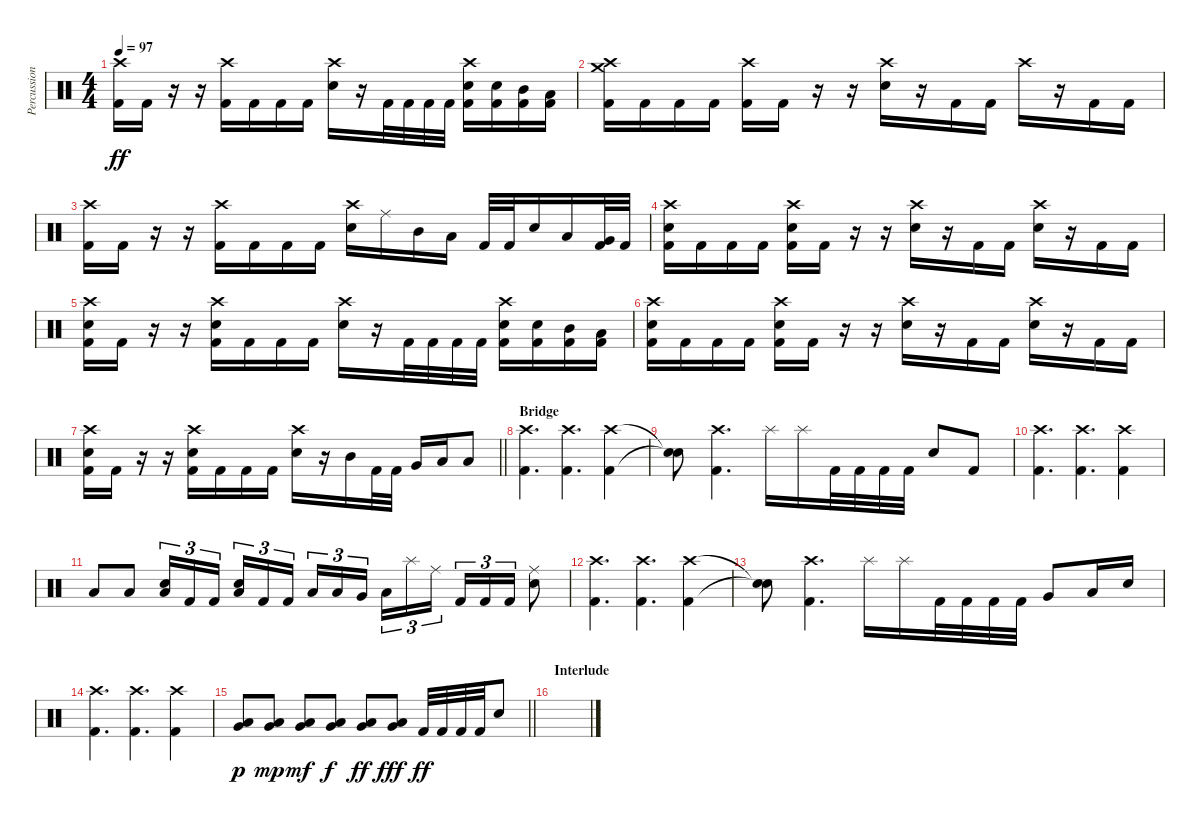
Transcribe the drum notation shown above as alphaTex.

\track ("Percussion" "Percussion") {instrument percussion}
\staff {score}
\articulation defaults
\ts (4 4)
\tempo 97
\clef neutral
\ks c
("Crash high (hit)" "Kick (hit) 2").16{dy ff} "Kick (hit) 2".16 r.16 r.16 ("Crash high (hit)" "Kick (hit) 2").16 "Kick (hit) 2".16 "Kick (hit) 2".16 "Kick (hit) 2".16 ("Crash high (hit)" "Electric Snare (hit)").16 r.16 "Kick (hit) 2".32 "Kick (hit) 2".32 "Kick (hit) 2".32 "Kick (hit) 2".32 ("Crash high (hit)" "Electric Snare (hit)" "Kick (hit) 2").16 ("Electric Snare (hit)" "Kick (hit) 2").16 ("Mid Tom (hit)" "Kick (hit) 2").16 ("Low Tom (hit)" "Kick (hit) 2").16 |
("Crash high (hit)" "Crash medium (hit)" "Kick (hit) 2").16 "Kick (hit) 2".16 "Kick (hit) 2".16 "Kick (hit) 2".16 ("Crash high (hit)" "Kick (hit) 2").16 "Kick (hit) 2".16 r.16 r.16 ("Crash high (hit)" "Electric Snare (hit)").16 r.16 "Kick (hit) 2".16 "Kick (hit) 2".16 "Crash high (hit)".16 r.16 "Kick (hit) 2".16 "Kick (hit) 2".16 |
("Crash high (hit)" "Kick (hit) 2").16 "Kick (hit) 2".16 r.16 r.16 ("Crash high (hit)" "Kick (hit) 2").16 "Kick (hit) 2".16 "Kick (hit) 2".16 "Kick (hit) 2".16 ("Crash high (hit)" "Electric Snare (hit)").16 "Ride (middle)".16 "Mid Tom (hit)".16 "Low Tom (hit)".16 "Kick (hit) 2".32 "Kick (hit) 2".32 "Electric Snare (hit)".16 "Low Tom (hit)".16 ("Very Low Tom (hit)" "Kick (hit) 2").32 "Kick (hit) 2".32 |
("Crash high (hit)" "Electric Snare (hit)" "Kick (hit) 2").16 "Kick (hit) 2".16 "Kick (hit) 2".16 "Kick (hit) 2".16 ("Crash high (hit)" "Electric Snare (hit)" "Kick (hit) 2").16 "Kick (hit) 2".16 r.16 r.16 ("Crash high (hit)" "Electric Snare (hit)").16 r.16 "Kick (hit) 2".16 "Kick (hit) 2".16 ("Crash high (hit)" "Electric Snare (hit)").16 r.16 "Kick (hit) 2".16 "Kick (hit) 2".16 |
("Crash high (hit)" "Electric Snare (hit)" "Kick (hit) 2").16 "Kick (hit) 2".16 r.16 r.16 ("Crash high (hit)" "Electric Snare (hit)" "Kick (hit) 2").16 "Kick (hit) 2".16 "Kick (hit) 2".16 "Kick (hit) 2".16 ("Crash high (hit)" "Electric Snare (hit)").16 r.16 "Kick (hit) 2".32 "Kick (hit) 2".32 "Kick (hit) 2".32 "Kick (hit) 2".32 ("Crash high (hit)" "Electric Snare (hit)" "Kick (hit) 2").16 ("Electric Snare (hit)" "Kick (hit) 2").16 ("Mid Tom (hit)" "Kick (hit) 2").16 ("Low Tom (hit)" "Kick (hit) 2").16 |
("Crash high (hit)" "Electric Snare (hit)" "Kick (hit) 2").16 "Kick (hit) 2".16 "Kick (hit) 2".16 "Kick (hit) 2".16 ("Crash high (hit)" "Electric Snare (hit)" "Kick (hit) 2").16 "Kick (hit) 2".16 r.16 r.16 ("Crash high (hit)" "Electric Snare (hit)").16 r.16 "Kick (hit) 2".16 "Kick (hit) 2".16 ("Crash high (hit)" "Electric Snare (hit)").16 r.16 "Kick (hit) 2".16 "Kick (hit) 2".16 |
\barLineRight lightlight
("Crash high (hit)" "Electric Snare (hit)" "Kick (hit) 2").16 "Kick (hit) 2".16 r.16 r.16 ("Crash high (hit)" "Electric Snare (hit)" "Kick (hit) 2").16 "Kick (hit) 2".16 "Kick (hit) 2".16 "Kick (hit) 2".16 ("Crash high (hit)" "Electric Snare (hit)").16 r.16 "Mid Tom (hit)".16 "Kick (hit) 2".32 "Kick (hit) 2".32 "Very Low Tom (hit)".16 "Low Tom (hit)".16 "Low Floor Tom (hit)".8 |
\section ("" "Bridge")
("Crash high (hit)" "Kick (hit) 2").4{d} ("Crash high (hit)" "Kick (hit) 2").4{d} ("Crash high (hit)" "Kick (hit) 2").4 |
("Snare (hit)"{t} "Snare (hit)"{t}).8 ("Crash high (hit)" "Kick (hit) 2").4{d} "Splash (hit)".16 "Splash (hit)".16 "Kick (hit) 2".32 "Kick (hit) 2".32 "Kick (hit) 2".32 "Kick (hit) 2".32 "Electric Snare (hit)".8 "Kick (hit) 2".8 |
("Crash high (hit)" "Kick (hit) 2").4{d} ("Crash high (hit)" "Kick (hit) 2").4{d} ("Crash high (hit)" "Kick (hit) 2").4 |
"Low Floor Tom (hit)".8 "Low Floor Tom (hit)".8 ("Electric Snare (hit)" "Low Floor Tom (hit)").16{tu (3 2)} "Kick (hit) 2".16{tu (3 2)} "Kick (hit) 2".16{tu (3 2) beam splitsecondary} ("Electric Snare (hit)" "Low Floor Tom (hit)").16{tu (3 2)} "Kick (hit) 2".16{tu (3 2)} "Kick (hit) 2".16{tu (3 2)} "Low Tom (hit)".16{tu (3 2)} "Low Tom (hit)".16{tu (3 2)} "Very Low Tom (hit)".16{tu (3 2) beam splitsecondary} "Low Tom (hit)".16{tu (3 2)} "Splash (hit)".16{tu (3 2)} "Ride (middle)".16{tu (3 2)} "Kick (hit) 2".16{tu (3 2)} "Kick (hit) 2".16{tu (3 2)} "Kick (hit) 2".16{tu (3 2)} ("Ride (middle)" "Electric Snare (hit)").8 |
("Crash high (hit)" "Kick (hit) 2").4{d} ("Crash high (hit)" "Kick (hit) 2").4{d} ("Crash high (hit)" "Kick (hit) 2").4 |
("Snare (hit)"{t} "Snare (hit)"{t}).8 ("Crash high (hit)" "Kick (hit) 2").4{d} "Splash (hit)".16 "Splash (hit)".16 "Kick (hit) 2".32 "Kick (hit) 2".32 "Kick (hit) 2".32 "Kick (hit) 2".32 "Very Low Tom (hit)".8 "Low Floor Tom (hit)".16 "Electric Snare (hit)".16 |
("Crash high (hit)" "Kick (hit) 2").4{d} ("Crash high (hit)" "Kick (hit) 2").4{d} ("Crash high (hit)" "Kick (hit) 2").4 |
\barLineRight lightlight
("Very Low Tom (hit)" "Low Floor Tom (hit)").8{dy p} ("Very Low Tom (hit)" "Low Floor Tom (hit)").8{dy mp} ("Very Low Tom (hit)" "Low Floor Tom (hit)").8{dy mf} ("Very Low Tom (hit)" "Low Floor Tom (hit)").8{dy f} ("Very Low Tom (hit)" "Low Floor Tom (hit)").8{dy ff} ("Very Low Tom (hit)" "Low Floor Tom (hit)").8{dy fff} "Kick (hit) 2".32{dy ff} "Kick (hit) 2".32 "Kick (hit) 2".32 "Kick (hit) 2".32 "Electric Snare (hit)".8 |
\section ("" "Interlude")
